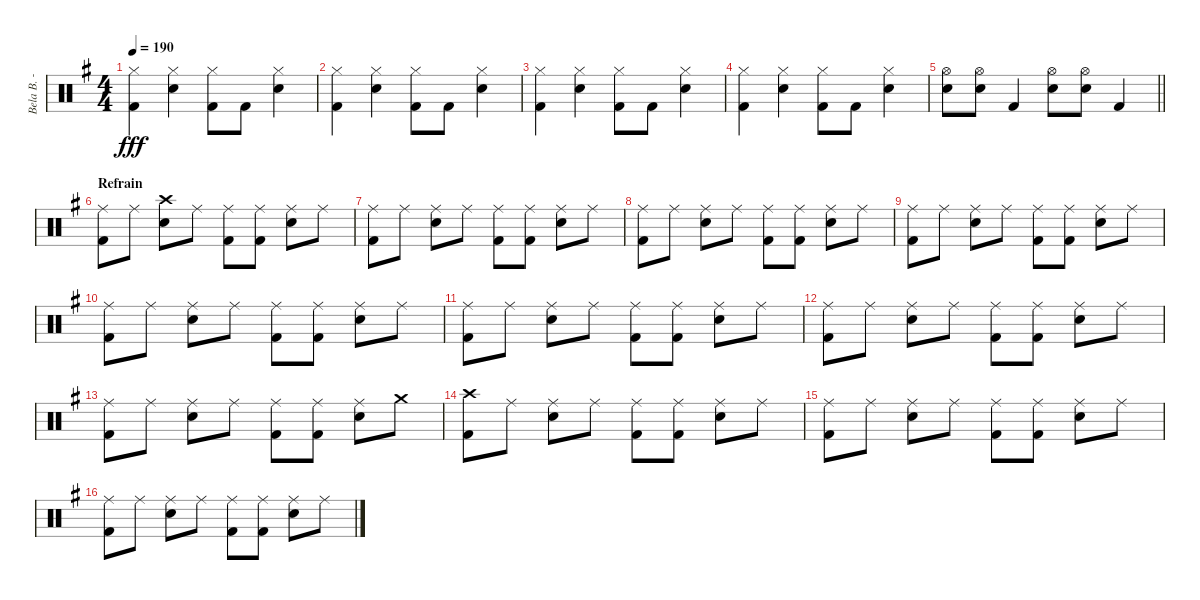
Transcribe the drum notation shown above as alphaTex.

\track ("Bela B. - Drums" "Bela B. - ") {instrument percussion}
\staff {score}
\articulation defaults
\ts (4 4)
\tempo 190
\clef neutral
\ks g
("Hi-Hat (closed)" "Kick (hit) 2").4{dy fff} ("Hi-Hat (closed)" "Snare (hit) 2").4 ("Hi-Hat (closed)" "Kick (hit) 2").8 "Kick (hit) 2".8 ("Hi-Hat (closed)" "Snare (hit) 2").4 |
("Hi-Hat (closed)" "Kick (hit) 2").4 ("Hi-Hat (closed)" "Snare (hit) 2").4 ("Hi-Hat (closed)" "Kick (hit) 2").8 "Kick (hit) 2".8 ("Hi-Hat (closed)" "Snare (hit) 2").4 |
("Hi-Hat (closed)" "Kick (hit) 2").4 ("Hi-Hat (closed)" "Snare (hit) 2").4 ("Hi-Hat (closed)" "Kick (hit) 2").8 "Kick (hit) 2".8 ("Hi-Hat (closed)" "Snare (hit) 2").4 |
("Hi-Hat (closed)" "Kick (hit) 2").4 ("Hi-Hat (closed)" "Snare (hit) 2").4 ("Hi-Hat (closed)" "Kick (hit) 2").8 "Kick (hit) 2".8 ("Hi-Hat (closed)" "Snare (hit) 2").4 |
\barLineRight lightlight
("Hi-Hat (open)" "Snare (hit) 2").8 ("Hi-Hat (open)" "Snare (hit) 2").8 "Kick (hit) 2".4 ("Hi-Hat (open)" "Snare (hit) 2").8 ("Hi-Hat (open)" "Snare (hit) 2").8 "Kick (hit) 2".4 |
\section ("" "Refrain")
("Ride (middle)" "Kick (hit) 2").8 "Ride (middle)".8 ("Crash high (hit)" "Snare (hit) 2").8 "Ride (middle)".8 ("Ride (middle)" "Kick (hit) 2").8 ("Ride (middle)" "Kick (hit) 2").8 ("Ride (middle)" "Snare (hit) 2").8 "Ride (middle)".8 |
("Ride (middle)" "Kick (hit) 2").8 "Ride (middle)".8 ("Ride (middle)" "Snare (hit) 2").8 "Ride (middle)".8 ("Ride (middle)" "Kick (hit) 2").8 ("Ride (middle)" "Kick (hit) 2").8 ("Ride (middle)" "Snare (hit) 2").8 "Ride (middle)".8 |
("Ride (middle)" "Kick (hit) 2").8 "Ride (middle)".8 ("Ride (middle)" "Snare (hit) 2").8 "Ride (middle)".8 ("Ride (middle)" "Kick (hit) 2").8 ("Ride (middle)" "Kick (hit) 2").8 ("Ride (middle)" "Snare (hit) 2").8 "Ride (middle)".8 |
("Ride (middle)" "Kick (hit) 2").8 "Ride (middle)".8 ("Ride (middle)" "Snare (hit) 2").8 "Ride (middle)".8 ("Ride (middle)" "Kick (hit) 2").8 ("Ride (middle)" "Kick (hit) 2").8 ("Ride (middle)" "Snare (hit) 2").8 "Ride (middle)".8 |
("Ride (middle)" "Kick (hit) 2").8 "Ride (middle)".8 ("Ride (middle)" "Snare (hit) 2").8 "Ride (middle)".8 ("Ride (middle)" "Kick (hit) 2").8 ("Ride (middle)" "Kick (hit) 2").8 ("Ride (middle)" "Snare (hit) 2").8 "Ride (middle)".8 |
("Ride (middle)" "Kick (hit) 2").8 "Ride (middle)".8 ("Ride (middle)" "Snare (hit) 2").8 "Ride (middle)".8 ("Ride (middle)" "Kick (hit) 2").8 ("Ride (middle)" "Kick (hit) 2").8 ("Ride (middle)" "Snare (hit) 2").8 "Ride (middle)".8 |
("Ride (middle)" "Kick (hit) 2").8 "Ride (middle)".8 ("Ride (middle)" "Snare (hit) 2").8 "Ride (middle)".8 ("Ride (middle)" "Kick (hit) 2").8 ("Ride (middle)" "Kick (hit) 2").8 ("Ride (middle)" "Snare (hit) 2").8 "Ride (middle)".8 |
("Ride (middle)" "Kick (hit) 2").8 "Ride (middle)".8 ("Ride (middle)" "Snare (hit) 2").8 "Ride (middle)".8 ("Ride (middle)" "Kick (hit) 2").8 ("Ride (middle)" "Kick (hit) 2").8 ("Ride (middle)" "Snare (hit) 2").8 "Crash medium (hit)".8 |
("Crash high (hit)" "Kick (hit) 2").8 "Ride (middle)".8 ("Ride (middle)" "Snare (hit) 2").8 "Ride (middle)".8 ("Ride (middle)" "Kick (hit) 2").8 ("Ride (middle)" "Kick (hit) 2").8 ("Ride (middle)" "Snare (hit) 2").8 "Ride (middle)".8 |
("Ride (middle)" "Kick (hit) 2").8 "Ride (middle)".8 ("Ride (middle)" "Snare (hit) 2").8 "Ride (middle)".8 ("Ride (middle)" "Kick (hit) 2").8 ("Ride (middle)" "Kick (hit) 2").8 ("Ride (middle)" "Snare (hit) 2").8 "Ride (middle)".8 |
("Ride (middle)" "Kick (hit) 2").8 "Ride (middle)".8 ("Ride (middle)" "Snare (hit) 2").8 "Ride (middle)".8 ("Ride (middle)" "Kick (hit) 2").8 ("Ride (middle)" "Kick (hit) 2").8 ("Ride (middle)" "Snare (hit) 2").8 "Ride (middle)".8
